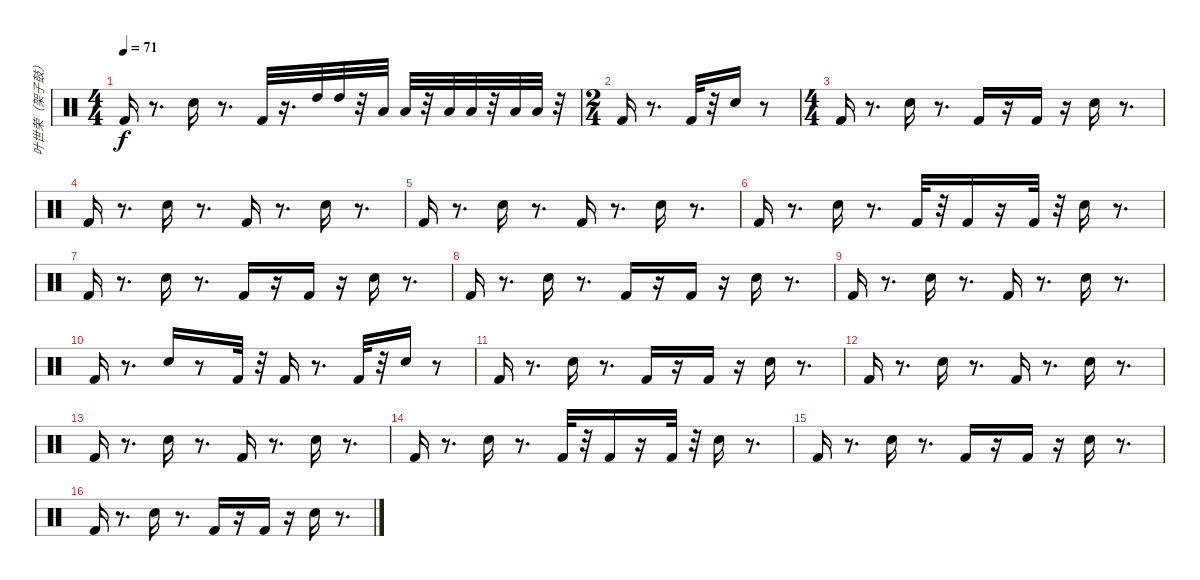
\track ("叶世荣（架子鼓）" "叶世荣（架子鼓）") {instrument percussion}
\staff {score}
\articulation defaults
\ts (4 4)
\tempo 71
\clef neutral
\ks c "Kick (hit) 2".16{dy f}
r.8{d} "Snare (hit) 2".16 r.8{d} "Kick (hit) 2".32 r.16{d} "High Tom (hit)".32 "High Tom (hit)".32 r.32 "Low Tom (hit)".32 "Low Tom (hit)".32 r.32 "Low Floor Tom (hit)".32 "Low Floor Tom (hit)".32 r.32 "Low Floor Tom (hit)".32 "Low Floor Tom (hit)".32 r.32 |
\ts (2 4)
"Kick (hit) 2".16 r.8{d} "Kick (hit) 2".32 r.32 "Snare (hit) 2".16 r.8 |
\ts (4 4)
"Kick (hit) 2".16 r.8{d} "Snare (hit) 2".16 r.8{d} "Kick (hit) 2".16 r.16 "Kick (hit) 2".16 r.16 "Snare (hit) 2".16 r.8{d} |
"Kick (hit) 2".16 r.8{d} "Snare (hit) 2".16 r.8{d} "Kick (hit) 2".16 r.8{d} "Snare (hit) 2".16 r.8{d} |
"Kick (hit) 2".16 r.8{d} "Snare (hit) 2".16 r.8{d} "Kick (hit) 2".16 r.8{d} "Snare (hit) 2".16 r.8{d} |
"Kick (hit) 2".16 r.8{d} "Snare (hit) 2".16 r.8{d} "Kick (hit) 2".32 r.32 "Kick (hit) 2".16 r.16 "Kick (hit) 2".32 r.32 "Snare (hit) 2".16 r.8{d} |
"Kick (hit) 2".16 r.8{d} "Snare (hit) 2".16 r.8{d} "Kick (hit) 2".16 r.16 "Kick (hit) 2".16 r.16 "Snare (hit) 2".16 r.8{d} |
"Kick (hit) 2".16 r.8{d} "Snare (hit) 2".16 r.8{d} "Kick (hit) 2".16 r.16 "Kick (hit) 2".16 r.16 "Snare (hit) 2".16 r.8{d} |
"Kick (hit) 2".16 r.8{d} "Snare (hit) 2".16 r.8{d} "Kick (hit) 2".16 r.8{d} "Snare (hit) 2".16 r.8{d} |
"Kick (hit) 2".16 r.8{d} "Snare (hit) 2".16 r.8 "Kick (hit) 2".32 r.32 "Kick (hit) 2".16 r.8{d} "Kick (hit) 2".32 r.32 "Snare (hit) 2".16 r.8 |
"Kick (hit) 2".16 r.8{d} "Snare (hit) 2".16 r.8{d} "Kick (hit) 2".16 r.16 "Kick (hit) 2".16 r.16 "Snare (hit) 2".16 r.8{d} |
"Kick (hit) 2".16 r.8{d} "Snare (hit) 2".16 r.8{d} "Kick (hit) 2".16 r.8{d} "Snare (hit) 2".16 r.8{d} |
"Kick (hit) 2".16 r.8{d} "Snare (hit) 2".16 r.8{d} "Kick (hit) 2".16 r.8{d} "Snare (hit) 2".16 r.8{d} |
"Kick (hit) 2".16 r.8{d} "Snare (hit) 2".16 r.8{d} "Kick (hit) 2".32 r.32 "Kick (hit) 2".16 r.16 "Kick (hit) 2".32 r.32 "Snare (hit) 2".16 r.8{d} |
"Kick (hit) 2".16 r.8{d} "Snare (hit) 2".16 r.8{d} "Kick (hit) 2".16 r.16 "Kick (hit) 2".16 r.16 "Snare (hit) 2".16 r.8{d} |
"Kick (hit) 2".16 r.8{d} "Snare (hit) 2".16 r.8{d} "Kick (hit) 2".16 r.16 "Kick (hit) 2".16 r.16 "Snare (hit) 2".16 r.8{d}
